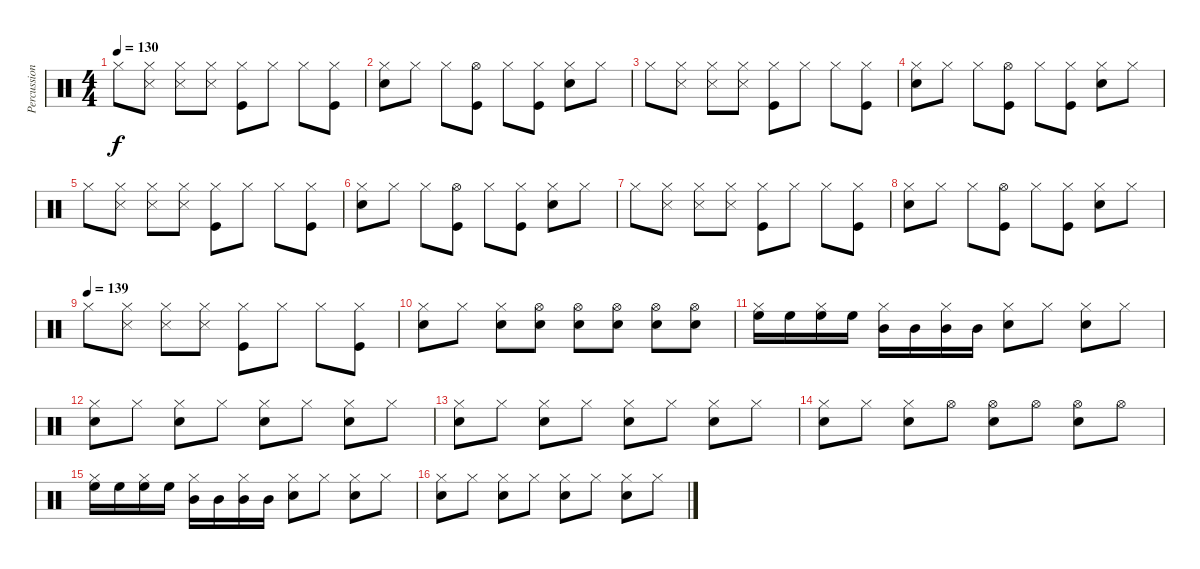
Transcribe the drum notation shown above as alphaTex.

\track ("Percussion" "Percussion") {instrument percussion}
\staff {score}
\articulation defaults
\ts (4 4)
\tempo 130
\clef neutral
\ks c "Hi-Hat (closed)".8{dy f}
("Snare (side stick) 3" "Hi-Hat (closed)").8 ("Snare (side stick) 3" "Hi-Hat (closed)").8 ("Snare (side stick) 3" "Hi-Hat (closed)").8 ("Kick (hit)" "Hi-Hat (closed)").8 "Hi-Hat (closed)".8 "Hi-Hat (closed)".8 ("Kick (hit)" "Hi-Hat (closed)").8 |
("Electric Snare (hit)" "Hi-Hat (closed)").8 "Hi-Hat (closed)".8 "Hi-Hat (closed)".8 ("Kick (hit)" "Hi-Hat (open)").8 "Hi-Hat (closed)".8 ("Kick (hit)" "Hi-Hat (closed)").8 ("Electric Snare (hit)" "Hi-Hat (closed)").8 "Hi-Hat (closed)".8 |
"Hi-Hat (closed)".8 ("Snare (side stick) 3" "Hi-Hat (closed)").8 ("Snare (side stick) 3" "Hi-Hat (closed)").8 ("Snare (side stick) 3" "Hi-Hat (closed)").8 ("Kick (hit)" "Hi-Hat (closed)").8 "Hi-Hat (closed)".8 "Hi-Hat (closed)".8 ("Kick (hit)" "Hi-Hat (closed)").8 |
("Electric Snare (hit)" "Hi-Hat (closed)").8 "Hi-Hat (closed)".8 "Hi-Hat (closed)".8 ("Kick (hit)" "Hi-Hat (open)").8 "Hi-Hat (closed)".8 ("Kick (hit)" "Hi-Hat (closed)").8 ("Electric Snare (hit)" "Hi-Hat (closed)").8 "Hi-Hat (closed)".8 |
"Hi-Hat (closed)".8 ("Snare (side stick) 3" "Hi-Hat (closed)").8 ("Snare (side stick) 3" "Hi-Hat (closed)").8 ("Snare (side stick) 3" "Hi-Hat (closed)").8 ("Kick (hit)" "Hi-Hat (closed)").8 "Hi-Hat (closed)".8 "Hi-Hat (closed)".8 ("Kick (hit)" "Hi-Hat (closed)").8 |
("Electric Snare (hit)" "Hi-Hat (closed)").8 "Hi-Hat (closed)".8 "Hi-Hat (closed)".8 ("Kick (hit)" "Hi-Hat (open)").8 "Hi-Hat (closed)".8 ("Kick (hit)" "Hi-Hat (closed)").8 ("Electric Snare (hit)" "Hi-Hat (closed)").8 "Hi-Hat (closed)".8 |
"Hi-Hat (closed)".8 ("Snare (side stick) 3" "Hi-Hat (closed)").8 ("Snare (side stick) 3" "Hi-Hat (closed)").8 ("Snare (side stick) 3" "Hi-Hat (closed)").8 ("Kick (hit)" "Hi-Hat (closed)").8 "Hi-Hat (closed)".8 "Hi-Hat (closed)".8 ("Kick (hit)" "Hi-Hat (closed)").8 |
("Electric Snare (hit)" "Hi-Hat (closed)").8 "Hi-Hat (closed)".8 "Hi-Hat (closed)".8 ("Kick (hit)" "Hi-Hat (open)").8 "Hi-Hat (closed)".8 ("Kick (hit)" "Hi-Hat (closed)").8 ("Electric Snare (hit)" "Hi-Hat (closed)").8 "Hi-Hat (closed)".8 |
\tempo (139)
"Hi-Hat (closed)".8 ("Snare (side stick) 3" "Hi-Hat (closed)").8 ("Snare (side stick) 3" "Hi-Hat (closed)").8 ("Snare (side stick) 3" "Hi-Hat (closed)").8 ("Kick (hit)" "Hi-Hat (closed)").8 "Hi-Hat (closed)".8 "Hi-Hat (closed)".8 ("Kick (hit)" "Hi-Hat (closed)").8 |
("Electric Snare (hit)" "Hi-Hat (closed)").8 "Hi-Hat (closed)".8 ("Electric Snare (hit)" "Hi-Hat (closed)").8 ("Electric Snare (hit)" "Hi-Hat (open)").8 ("Electric Snare (hit)" "Hi-Hat (open)").8 ("Electric Snare (hit)" "Hi-Hat (open)").8 ("Electric Snare (hit)" "Hi-Hat (open)").8 ("Electric Snare (hit)" "Hi-Hat (open)").8 |
("High Floor Tom (hit)" "Hi-Hat (closed)").16 "High Floor Tom (hit)".16 ("High Floor Tom (hit)" "Hi-Hat (closed)").16 "High Floor Tom (hit)".16 ("Mid Tom (hit)" "Hi-Hat (closed)").16 "Mid Tom (hit)".16 ("Mid Tom (hit)" "Hi-Hat (closed)").16 "Mid Tom (hit)".16 ("Electric Snare (hit)" "Hi-Hat (closed)").8 "Hi-Hat (closed)".8 ("Electric Snare (hit)" "Hi-Hat (closed)").8 "Hi-Hat (closed)".8 |
("Electric Snare (hit)" "Hi-Hat (closed)").8 "Hi-Hat (closed)".8 ("Electric Snare (hit)" "Hi-Hat (closed)").8 "Hi-Hat (closed)".8 ("Electric Snare (hit)" "Hi-Hat (closed)").8 "Hi-Hat (closed)".8 ("Electric Snare (hit)" "Hi-Hat (closed)").8 "Hi-Hat (closed)".8 |
("Electric Snare (hit)" "Hi-Hat (closed)").8 "Hi-Hat (closed)".8 ("Electric Snare (hit)" "Hi-Hat (closed)").8 "Hi-Hat (closed)".8 ("Electric Snare (hit)" "Hi-Hat (closed)").8 "Hi-Hat (closed)".8 ("Electric Snare (hit)" "Hi-Hat (closed)").8 "Hi-Hat (closed)".8 |
("Electric Snare (hit)" "Hi-Hat (closed)").8 "Hi-Hat (closed)".8 ("Electric Snare (hit)" "Hi-Hat (closed)").8 "Hi-Hat (open)".8 ("Electric Snare (hit)" "Hi-Hat (open)").8 "Hi-Hat (open)".8 ("Electric Snare (hit)" "Hi-Hat (open)").8 "Hi-Hat (open)".8 |
("High Floor Tom (hit)" "Hi-Hat (closed)").16 "High Floor Tom (hit)".16 ("High Floor Tom (hit)" "Hi-Hat (closed)").16 "High Floor Tom (hit)".16 ("Mid Tom (hit)" "Hi-Hat (closed)").16 "Mid Tom (hit)".16 ("Mid Tom (hit)" "Hi-Hat (closed)").16 "Mid Tom (hit)".16 ("Electric Snare (hit)" "Hi-Hat (closed)").8 "Hi-Hat (closed)".8 ("Electric Snare (hit)" "Hi-Hat (closed)").8 "Hi-Hat (closed)".8 |
("Electric Snare (hit)" "Hi-Hat (closed)").8 "Hi-Hat (closed)".8 ("Electric Snare (hit)" "Hi-Hat (closed)").8 "Hi-Hat (closed)".8 ("Electric Snare (hit)" "Hi-Hat (closed)").8 "Hi-Hat (closed)".8 ("Electric Snare (hit)" "Hi-Hat (closed)").8 "Hi-Hat (closed)".8
